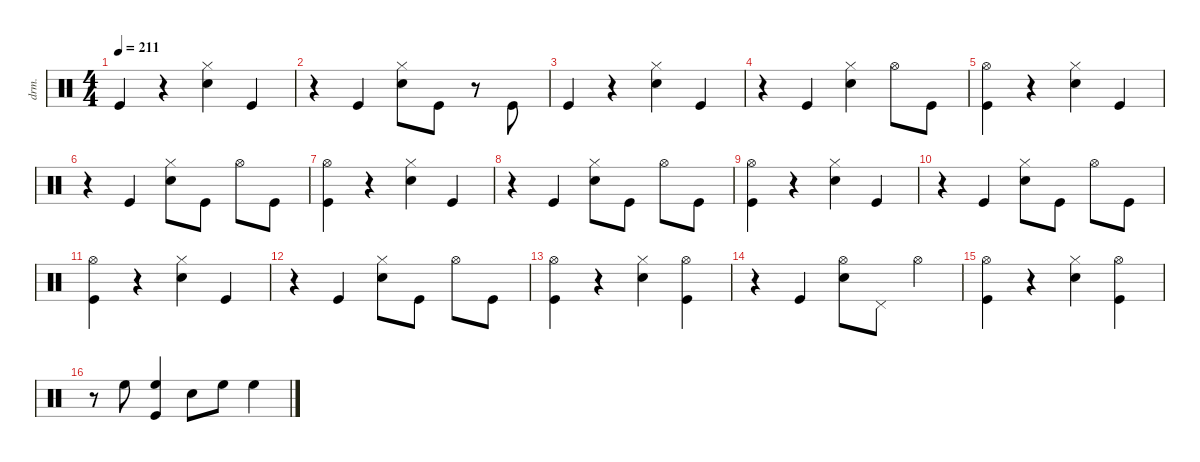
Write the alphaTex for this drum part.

\defaultSystemsLayout 4
\hideDynamics
\bracketExtendMode nobrackets
\otherSystemsTrackNameOrientation horizontal
\track ("Drums" "drm.") {instrument percussion}
\staff {score}
\articulation defaults
\ts (4 4)
\tempo 211
\clef neutral
\ks c "Kick (hit)".4{dy fff beam Up}
r.4{beam Up} ("Snare (hit) 2" "Hi-Hat (closed)"{acc #}).4{dy ff beam Down} "Kick (hit)".4{beam Up} |
r.4{beam Down} "Kick (hit)".4{beam Up} ("Snare (hit) 2" "Hi-Hat (closed)"{acc #}).8{beam Down} "Kick (hit)".8{beam Down} r.8{beam Down} "Kick (hit)".8{dy mp beam Up} |
"Kick (hit)".4{dy fff beam Up} r.4{beam Up} ("Snare (hit) 2" "Hi-Hat (closed)"{acc #}).4{dy ff beam Down} "Kick (hit)".4{beam Up} |
r.4{beam Down} "Kick (hit)".4{beam Up} ("Snare (hit) 2" "Hi-Hat (closed)"{acc #}).4{beam Down} "Hi-Hat (open)"{acc #}.8{dy f beam Down} "Kick (hit)".8{dy mp beam Down} |
("Kick (hit)" "Hi-Hat (open)"{acc #}).4{dy fff beam Down} r.4{beam Down} ("Snare (hit) 2" "Hi-Hat (closed)"{acc #}).4{dy ff beam Down} "Kick (hit)".4{beam Up} |
r.4{beam Down} "Kick (hit)".4{beam Up} ("Snare (hit) 2" "Hi-Hat (closed)"{acc #}).8{beam Down} "Kick (hit)".8{beam Down} "Hi-Hat (open)"{acc #}.8{dy f beam Down} "Kick (hit)".8{dy mp beam Down} |
("Kick (hit)" "Hi-Hat (open)"{acc #}).4{dy fff beam Down} r.4{beam Down} ("Snare (hit) 2" "Hi-Hat (closed)"{acc #}).4{dy ff beam Down} "Kick (hit)".4{beam Up} |
r.4{beam Down} "Kick (hit)".4{beam Up} ("Snare (hit) 2" "Hi-Hat (closed)"{acc #}).8{beam Down} "Kick (hit)".8{beam Down} "Hi-Hat (open)"{acc #}.8{dy f beam Down} "Kick (hit)".8{dy mp beam Down} |
("Kick (hit)" "Hi-Hat (open)"{acc #}).4{dy fff beam Down} r.4{beam Down} ("Snare (hit) 2" "Hi-Hat (closed)"{acc #}).4{dy ff beam Down} "Kick (hit)".4{beam Up} |
r.4{beam Down} "Kick (hit)".4{beam Up} ("Snare (hit) 2" "Hi-Hat (closed)"{acc #}).8{beam Down} "Kick (hit)".8{beam Down} "Hi-Hat (open)"{acc #}.8{dy f beam Down} "Kick (hit)".8{dy mp beam Down} |
("Kick (hit)" "Hi-Hat (open)"{acc #}).4{dy fff beam Down} r.4{beam Down} ("Snare (hit) 2" "Hi-Hat (closed)"{acc #}).4{dy ff beam Down} "Kick (hit)".4{beam Up} |
r.4{beam Down} "Kick (hit)".4{beam Up} ("Snare (hit) 2" "Hi-Hat (closed)"{acc #}).8{beam Down} "Kick (hit)".8{beam Down} "Hi-Hat (open)"{acc #}.8{dy f beam Down} "Kick (hit)".8{dy mp beam Down} |
("Kick (hit)" "Hi-Hat (open)"{acc #}).4{dy fff beam Down} r.4{beam Down} ("Snare (hit) 2" "Hi-Hat (closed)"{acc #}).4{dy ff beam Down} ("Kick (hit)" "Hi-Hat (open)"{acc #}).4{dy f beam Down} |
r.4{beam Down} "Kick (hit)".4{dy fff beam Up} ("Snare (hit) 2" "Hi-Hat (open)"{acc #}).8{dy ff beam Down} "Pedal Hi-Hat (hit)"{acc #}.8{beam Down} "Hi-Hat (open)"{acc #}.4{dy fff beam Down} |
("Kick (hit)" "Hi-Hat (open)"{acc #}).4{beam Down} r.4{beam Down} ("Snare (hit) 2" "Hi-Hat (closed)"{acc #}).4{dy ff beam Down} ("Kick (hit)" "Hi-Hat (open)"{acc #}).4{dy f beam Down} |
r.8{beam Down} "High Floor Tom (hit)".8{dy mp beam Down} ("Kick (hit)" "High Floor Tom (hit)").4{dy fff beam Up} "Snare (hit) 2".8{dy ff beam Down} "High Floor Tom (hit)".8{dy p beam Down} "High Floor Tom (hit)".4{dy fff beam Down}
